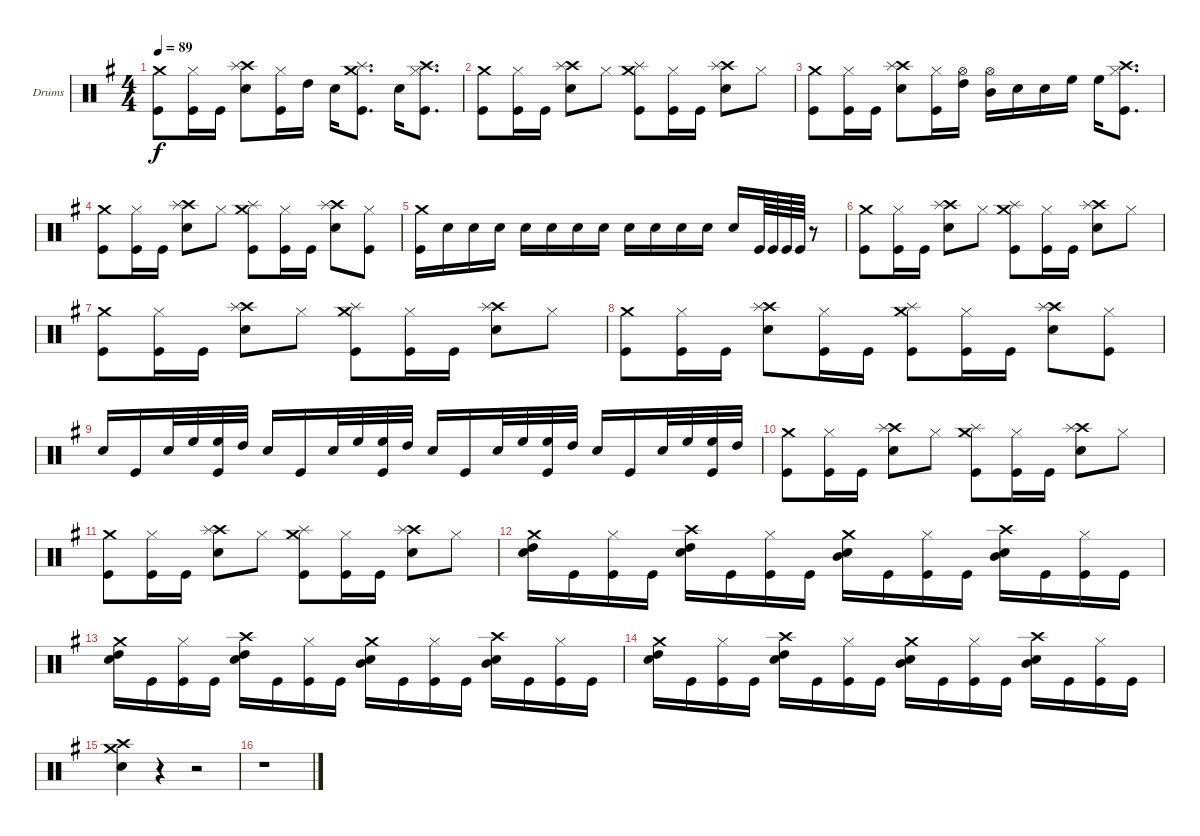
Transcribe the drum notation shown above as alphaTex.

\bracketExtendMode groupsimilarinstruments
\firstSystemTrackNameOrientation horizontal
\otherSystemsTrackNameOrientation horizontal
\track ("Drumkit" "Drums") {instrument percussion}
\staff {score}
\articulation defaults
\ts (4 4)
\tempo 89
\clef neutral
\scale
0.5
\ks eminor
("Kick (hit)" "Crash medium (hit)").8{dy f} ("Kick (hit)" "Hi-Hat (closed)").16 "Kick (hit)".16 ("Snare (hit) 2" "Crash high (hit)" "Splash (hit)").8 ("Kick (hit)" "Hi-Hat (closed)").16 "High Tom (hit)".16 "Snare (hit) 2".16 ("Kick (hit)" "Crash medium (hit)" "Splash (hit)").8{d} "Snare (hit) 2".16 ("Kick (hit)" "Hi-Hat (closed)" "Crash high (hit)").8{d} |
\scale
0.5 ("Kick (hit)" "Crash medium (hit)").8 ("Kick (hit)" "Hi-Hat (closed)").16 "Kick (hit)".16 ("Snare (hit) 2" "Crash high (hit)" "Splash (hit)").8 "Hi-Hat (closed)".8 ("Kick (hit)" "Crash medium (hit)" "Splash (hit)").8 ("Kick (hit)" "Hi-Hat (closed)").16 "Kick (hit)".16 ("Snare (hit) 2" "Crash high (hit)" "Splash (hit)").8 "Hi-Hat (closed)".8 |
\scale
0.526214 ("Kick (hit)" "Crash medium (hit)").8 ("Kick (hit)" "Hi-Hat (closed)").16 "Kick (hit)".16 ("Snare (hit) 2" "Crash high (hit)" "Splash (hit)").8 ("Kick (hit)" "Hi-Hat (closed)").16 ("High Tom (hit)" "Hi-Hat (open)").16 ("Mid Tom (hit)" "Hi-Hat (open)").16 "Snare (hit) 2".16 "Snare (hit) 2".16 "High Floor Tom (hit)".16 "High Floor Tom (hit)".16 ("Kick (hit)" "Hi-Hat (closed)" "Crash high (hit)").8{d} |
\scale
0.473786 ("Kick (hit)" "Crash medium (hit)").8 ("Kick (hit)" "Hi-Hat (closed)").16 "Kick (hit)".16 ("Snare (hit) 2" "Crash high (hit)" "Splash (hit)").8 "Hi-Hat (closed)".8 ("Kick (hit)" "Crash medium (hit)" "Splash (hit)").8 ("Kick (hit)" "Hi-Hat (closed)").16 "Kick (hit)".16 ("Snare (hit) 2" "Crash high (hit)" "Splash (hit)").8 ("Kick (hit)" "Hi-Hat (closed)").8 |
\scale
0.612083 ("Kick (hit)" "Crash medium (hit)").16 "Snare (hit) 2".16 "Snare (hit) 2".16 "Snare (hit) 2".16 "Snare (hit) 2".16 "Snare (hit) 2".16 "Snare (hit) 2".16 "Snare (hit) 2".16 "Snare (hit) 2".16 "Snare (hit) 2".16 "Snare (hit) 2".16 "Snare (hit) 2".16 "Snare (hit) 2".16 "Kick (hit)".64 "Kick (hit)".64 "Kick (hit)".64 "Kick (hit)".64 r.8 |
\scale
0.387917 ("Kick (hit)" "Crash medium (hit)").8 ("Kick (hit)" "Hi-Hat (closed)").16 "Kick (hit)".16 ("Snare (hit) 2" "Crash high (hit)" "Splash (hit)").8 "Hi-Hat (closed)".8 ("Kick (hit)" "Crash medium (hit)" "Splash (hit)").8 ("Kick (hit)" "Hi-Hat (closed)").16 "Kick (hit)".16 ("Snare (hit) 2" "Crash high (hit)" "Splash (hit)").8 "Hi-Hat (closed)".8 |
\scale
0.486056 ("Kick (hit)" "Crash medium (hit)").8 ("Kick (hit)" "Hi-Hat (closed)").16 "Kick (hit)".16 ("Snare (hit) 2" "Crash high (hit)" "Splash (hit)").8 "Hi-Hat (closed)".8 ("Kick (hit)" "Crash medium (hit)" "Splash (hit)").8 ("Kick (hit)" "Hi-Hat (closed)").16 "Kick (hit)".16 ("Snare (hit) 2" "Crash high (hit)" "Splash (hit)").8 "Hi-Hat (closed)".8 |
\scale
0.513944 ("Kick (hit)" "Crash medium (hit)").8 ("Kick (hit)" "Hi-Hat (closed)").16 "Kick (hit)".16 ("Snare (hit) 2" "Crash high (hit)" "Splash (hit)").8 ("Kick (hit)" "Hi-Hat (closed)").16 "Kick (hit)".16 ("Kick (hit)" "Crash medium (hit)" "Splash (hit)").8 ("Kick (hit)" "Hi-Hat (closed)").16 "Kick (hit)".16 ("Snare (hit) 2" "Crash high (hit)" "Splash (hit)").8 ("Kick (hit)" "Hi-Hat (closed)").8 |
\scale
0.567376 "Snare (hit) 2".16 "Kick (hit)".16 "Snare (hit) 2".32 "High Floor Tom (hit)".32 ("Kick (hit)" "High Floor Tom (hit)").32 "High Tom (hit)".32 "Snare (hit) 2".16 "Kick (hit)".16 "Snare (hit) 2".32 "High Floor Tom (hit)".32 ("Kick (hit)" "High Floor Tom (hit)").32 "High Tom (hit)".32 "Snare (hit) 2".16 "Kick (hit)".16 "Snare (hit) 2".32 "High Floor Tom (hit)".32 ("Kick (hit)" "High Floor Tom (hit)").32 "High Tom (hit)".32 "Snare (hit) 2".16 "Kick (hit)".16 "Snare (hit) 2".32 "High Floor Tom (hit)".32 ("Kick (hit)" "High Floor Tom (hit)").32 "High Tom (hit)".32 |
\scale
0.432624 ("Kick (hit)" "Crash medium (hit)").8 ("Kick (hit)" "Hi-Hat (closed)").16 "Kick (hit)".16 ("Snare (hit) 2" "Crash high (hit)" "Splash (hit)").8 "Hi-Hat (closed)".8 ("Kick (hit)" "Crash medium (hit)" "Splash (hit)").8 ("Kick (hit)" "Hi-Hat (closed)").16 "Kick (hit)".16 ("Snare (hit) 2" "Crash high (hit)" "Splash (hit)").8 "Hi-Hat (closed)".8 |
\scale
0.42732 ("Kick (hit)" "Crash medium (hit)").8 ("Kick (hit)" "Hi-Hat (closed)").16 "Kick (hit)".16 ("Snare (hit) 2" "Crash high (hit)" "Splash (hit)").8 "Hi-Hat (closed)".8 ("Kick (hit)" "Crash medium (hit)" "Splash (hit)").8 ("Kick (hit)" "Hi-Hat (closed)").16 "Kick (hit)".16 ("Snare (hit) 2" "Crash high (hit)" "Splash (hit)").8 "Hi-Hat (closed)".8 |
\scale
0.57268 ("High Tom (hit)" "Snare (hit) 2" "Crash medium (hit)").16 "Kick (hit)".16 ("Kick (hit)" "Hi-Hat (closed)").16 "Kick (hit)".16 ("High Tom (hit)" "Snare (hit) 2" "Crash high (hit)").16 "Kick (hit)".16 ("Kick (hit)" "Hi-Hat (closed)").16 "Kick (hit)".16 ("Mid Tom (hit)" "Snare (hit) 2" "Crash medium (hit)").16 "Kick (hit)".16 ("Kick (hit)" "Hi-Hat (closed)").16 "Kick (hit)".16 ("Mid Tom (hit)" "Snare (hit) 2" "Crash high (hit)").16 "Kick (hit)".16 ("Kick (hit)" "Hi-Hat (closed)").16 "Kick (hit)".16 |
\scale
0.5 ("High Tom (hit)" "Snare (hit) 2" "Crash medium (hit)").16 "Kick (hit)".16 ("Kick (hit)" "Hi-Hat (closed)").16 "Kick (hit)".16 ("High Tom (hit)" "Snare (hit) 2" "Crash high (hit)").16 "Kick (hit)".16 ("Kick (hit)" "Hi-Hat (closed)").16 "Kick (hit)".16 ("Mid Tom (hit)" "Snare (hit) 2" "Crash medium (hit)").16 "Kick (hit)".16 ("Kick (hit)" "Hi-Hat (closed)").16 "Kick (hit)".16 ("Mid Tom (hit)" "Snare (hit) 2" "Crash high (hit)").16 "Kick (hit)".16 ("Kick (hit)" "Hi-Hat (closed)").16 "Kick (hit)".16 |
\scale
0.5 ("High Tom (hit)" "Snare (hit) 2" "Crash medium (hit)").16 "Kick (hit)".16 ("Kick (hit)" "Hi-Hat (closed)").16 "Kick (hit)".16 ("High Tom (hit)" "Snare (hit) 2" "Crash high (hit)").16 "Kick (hit)".16 ("Kick (hit)" "Hi-Hat (closed)").16 "Kick (hit)".16 ("Mid Tom (hit)" "Snare (hit) 2" "Crash medium (hit)").16 "Kick (hit)".16 ("Kick (hit)" "Hi-Hat (closed)").16 "Kick (hit)".16 ("Mid Tom (hit)" "Snare (hit) 2" "Crash high (hit)").16 "Kick (hit)".16 ("Kick (hit)" "Hi-Hat (closed)").16 "Kick (hit)".16 |
\scale
0.646341 ("Snare (hit) 2" "Crash medium (hit)" "Crash high (hit)").4 r.4 r.2 |
\scale
0.353659 r.1
